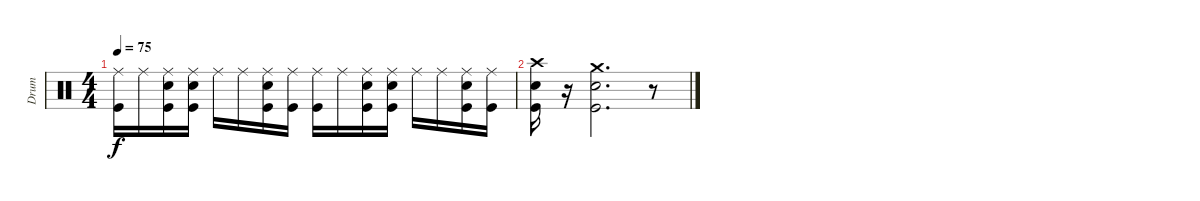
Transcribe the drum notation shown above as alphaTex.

\track ("Drum" "Drum") {instrument percussion}
\staff {score}
\articulation defaults
\ts (4 4)
\tempo 75
\clef neutral
\ks c
("Ride (middle)" "Kick (hit)").16{dy f} "Ride (middle)".16 ("Ride (middle)" "Electric Snare (hit)" "Kick (hit)").16 ("Ride (middle)" "Electric Snare (hit)" "Kick (hit)").16 "Ride (middle)".16 "Ride (middle)".16 ("Ride (middle)" "Electric Snare (hit)" "Kick (hit)").16 ("Ride (middle)" "Kick (hit)").16 ("Ride (middle)" "Kick (hit)").16 "Ride (middle)".16 ("Ride (middle)" "Electric Snare (hit)" "Kick (hit)").16 ("Ride (middle)" "Electric Snare (hit)" "Kick (hit)").16 "Ride (middle)".16 "Ride (middle)".16 ("Ride (middle)" "Electric Snare (hit)" "Kick (hit)").16 ("Ride (middle)" "Kick (hit)").16 |
("Crash high (hit)" "Electric Snare (hit)" "Kick (hit)").16 r.16 ("Crash medium (hit)" "Electric Snare (hit)" "Kick (hit)").2{d} r.8
